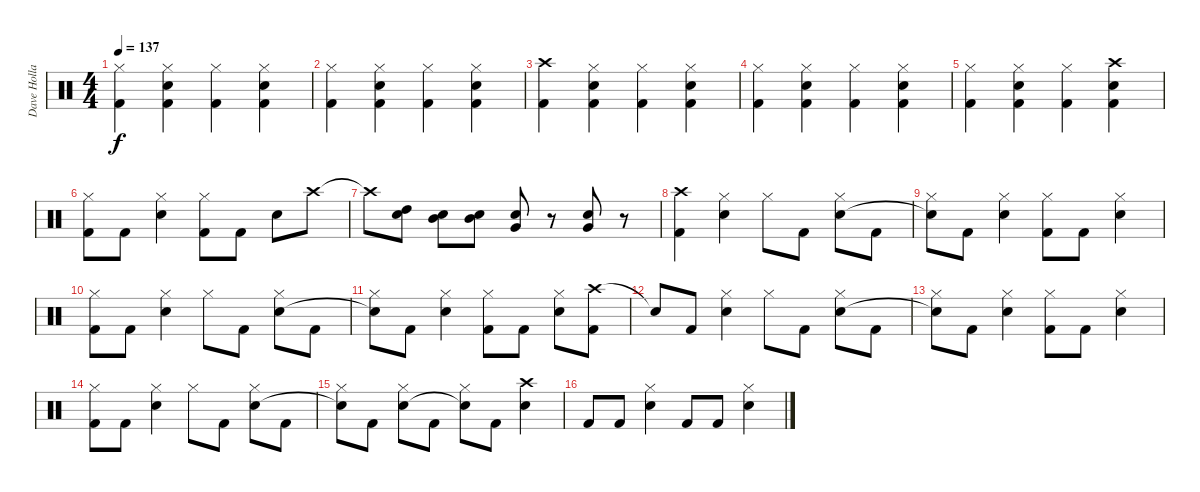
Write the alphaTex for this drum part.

\track ("Dave Holland" "Dave Holla") {instrument percussion}
\staff {score}
\articulation defaults
\ts (4 4)
\tempo 137
\clef neutral
\ks c
("Hi-Hat (closed)" "Kick (hit) 2").4{dy f} ("Hi-Hat (closed)" "Snare (hit) 2" "Kick (hit) 2").4 ("Hi-Hat (closed)" "Kick (hit) 2").4 ("Hi-Hat (closed)" "Snare (hit) 2" "Kick (hit) 2").4 |
("Hi-Hat (closed)" "Kick (hit) 2").4 ("Hi-Hat (closed)" "Snare (hit) 2" "Kick (hit) 2").4 ("Hi-Hat (closed)" "Kick (hit) 2").4 ("Hi-Hat (closed)" "Snare (hit) 2" "Kick (hit) 2").4 |
("Crash high (hit)" "Kick (hit) 2").4 ("Hi-Hat (closed)" "Snare (hit) 2" "Kick (hit) 2").4 ("Hi-Hat (closed)" "Kick (hit) 2").4 ("Hi-Hat (closed)" "Snare (hit) 2" "Kick (hit) 2").4 |
("Hi-Hat (closed)" "Kick (hit) 2").4 ("Hi-Hat (closed)" "Snare (hit) 2" "Kick (hit) 2").4 ("Hi-Hat (closed)" "Kick (hit) 2").4 ("Hi-Hat (closed)" "Snare (hit) 2" "Kick (hit) 2").4 |
("Hi-Hat (closed)" "Kick (hit) 2").4 ("Hi-Hat (closed)" "Snare (hit) 2" "Kick (hit) 2").4 ("Hi-Hat (closed)" "Kick (hit) 2").4 ("Crash high (hit)" "Snare (hit) 2" "Kick (hit) 2").4 |
("Hi-Hat (closed)" "Kick (hit) 2").8 "Kick (hit) 2".8 ("Hi-Hat (closed)" "Snare (hit) 2").4 ("Hi-Hat (closed)" "Kick (hit) 2").8 "Kick (hit) 2".8 "Snare (hit) 2".8 "Crash high (hit)".8 |
"Crash high (hit)"{t}.8 ("High Tom (hit)" "Snare (hit) 2").8 ("Mid Tom (hit)" "Snare (hit) 2").8 ("Mid Tom (hit)" "Snare (hit) 2").8 ("Very Low Tom (hit)" "Snare (hit) 2").8 r.8 ("Very Low Tom (hit)" "Snare (hit) 2").8 r.8 |
("Crash high (hit)" "Kick (hit) 2").4 ("Hi-Hat (closed)" "Snare (hit) 2").4 "Hi-Hat (closed)".8 "Kick (hit) 2".8 ("Hi-Hat (closed)" "Snare (hit) 2").8 "Kick (hit) 2".8 |
("Hi-Hat (closed)" "Snare (hit)"{t}).8 "Kick (hit) 2".8 ("Hi-Hat (closed)" "Snare (hit) 2").4 ("Hi-Hat (closed)" "Kick (hit) 2").8 "Kick (hit) 2".8 ("Hi-Hat (closed)" "Snare (hit) 2").4 |
("Hi-Hat (closed)" "Kick (hit) 2").8 "Kick (hit) 2".8 ("Hi-Hat (closed)" "Snare (hit) 2").4 "Hi-Hat (closed)".8 "Kick (hit) 2".8 ("Hi-Hat (closed)" "Snare (hit) 2").8 "Kick (hit) 2".8 |
("Hi-Hat (closed)" "Snare (hit)"{t}).8 "Kick (hit) 2".8 ("Hi-Hat (closed)" "Snare (hit) 2").4 ("Hi-Hat (closed)" "Kick (hit) 2").8 "Kick (hit) 2".8 ("Hi-Hat (closed)" "Snare (hit) 2").8 ("Crash high (hit)" "Kick (hit) 2").8 |
"Snare (hit)"{t}.8 "Kick (hit) 2".8 ("Hi-Hat (closed)" "Snare (hit) 2").4 "Hi-Hat (closed)".8 "Kick (hit) 2".8 ("Hi-Hat (closed)" "Snare (hit) 2").8 "Kick (hit) 2".8 |
("Hi-Hat (closed)" "Snare (hit)"{t}).8 "Kick (hit) 2".8 ("Hi-Hat (closed)" "Snare (hit) 2").4 ("Hi-Hat (closed)" "Kick (hit) 2").8 "Kick (hit) 2".8 ("Hi-Hat (closed)" "Snare (hit) 2").4 |
("Hi-Hat (closed)" "Kick (hit) 2").8 "Kick (hit) 2".8 ("Hi-Hat (closed)" "Snare (hit) 2").4 "Hi-Hat (closed)".8 "Kick (hit) 2".8 ("Hi-Hat (closed)" "Snare (hit) 2").8 "Kick (hit) 2".8 |
("Hi-Hat (closed)" "Snare (hit)"{t}).8 "Kick (hit) 2".8 ("Hi-Hat (closed)" "Snare (hit) 2").8 "Kick (hit) 2".8 ("Hi-Hat (closed)" "Snare (hit)"{t}).8 "Kick (hit) 2".8 ("Crash high (hit)" "Snare (hit) 2").4 |
"Kick (hit) 2".8 "Kick (hit) 2".8 ("Hi-Hat (closed)" "Snare (hit) 2").4 "Kick (hit) 2".8 "Kick (hit) 2".8 ("Hi-Hat (closed)" "Snare (hit) 2").4
